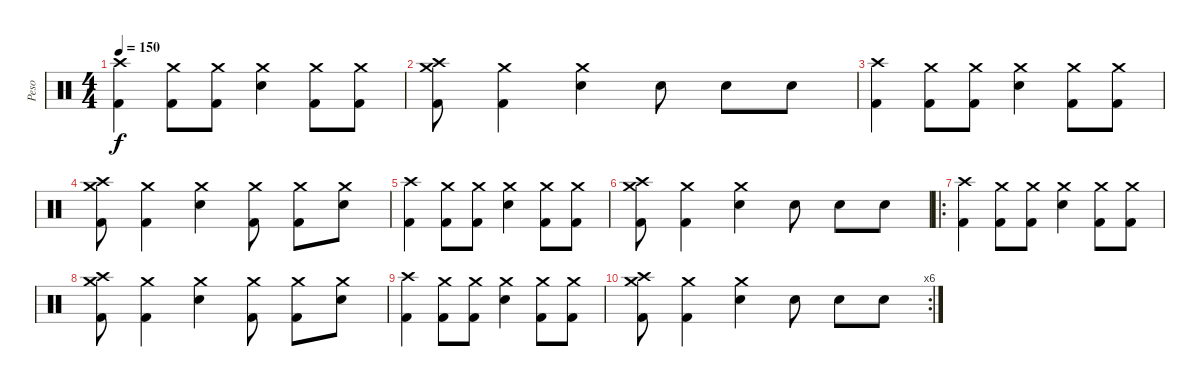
\track ("Peso" "Peso") {instrument percussion}
\staff {score}
\articulation defaults
\ts (4 4)
\tempo 150
\clef neutral
\ks c
("Crash high (hit)" "Kick (hit) 2").4{dy f} ("Crash medium (hit)" "Kick (hit) 2").8 ("Crash medium (hit)" "Kick (hit) 2").8 ("Crash medium (hit)" "Snare (hit) 2").4 ("Crash medium (hit)" "Kick (hit) 2").8 ("Crash medium (hit)" "Kick (hit) 2").8 |
("Crash high (hit)" "Crash medium (hit)" "Kick (hit) 2").8 ("Crash medium (hit)" "Kick (hit) 2").4 ("Crash medium (hit)" "Snare (hit) 2").4 "Snare (hit) 2".8 "Snare (hit) 2".8 "Snare (hit) 2".8 |
("Crash high (hit)" "Kick (hit) 2").4 ("Crash medium (hit)" "Kick (hit) 2").8 ("Crash medium (hit)" "Kick (hit) 2").8 ("Crash medium (hit)" "Snare (hit) 2").4 ("Crash medium (hit)" "Kick (hit) 2").8 ("Crash medium (hit)" "Kick (hit) 2").8 |
("Crash high (hit)" "Crash medium (hit)" "Kick (hit) 2").8 ("Crash medium (hit)" "Kick (hit) 2").4 ("Crash medium (hit)" "Snare (hit) 2").4 ("Crash medium (hit)" "Kick (hit) 2").8 ("Crash medium (hit)" "Kick (hit) 2").8 ("Crash medium (hit)" "Snare (hit) 2").8 |
("Crash high (hit)" "Kick (hit) 2").4 ("Crash medium (hit)" "Kick (hit) 2").8 ("Crash medium (hit)" "Kick (hit) 2").8 ("Crash medium (hit)" "Snare (hit) 2").4 ("Crash medium (hit)" "Kick (hit) 2").8 ("Crash medium (hit)" "Kick (hit) 2").8 |
("Crash high (hit)" "Crash medium (hit)" "Kick (hit) 2").8 ("Crash medium (hit)" "Kick (hit) 2").4 ("Crash medium (hit)" "Snare (hit) 2").4 "Snare (hit) 2".8 "Snare (hit) 2".8 "Snare (hit) 2".8 |
\ro
("Crash high (hit)" "Kick (hit) 2").4 ("Crash medium (hit)" "Kick (hit) 2").8 ("Crash medium (hit)" "Kick (hit) 2").8 ("Crash medium (hit)" "Snare (hit) 2").4 ("Crash medium (hit)" "Kick (hit) 2").8 ("Crash medium (hit)" "Kick (hit) 2").8 |
("Crash high (hit)" "Crash medium (hit)" "Kick (hit) 2").8 ("Crash medium (hit)" "Kick (hit) 2").4 ("Crash medium (hit)" "Snare (hit) 2").4 ("Crash medium (hit)" "Kick (hit) 2").8 ("Crash medium (hit)" "Kick (hit) 2").8 ("Crash medium (hit)" "Snare (hit) 2").8 |
("Crash high (hit)" "Kick (hit) 2").4 ("Crash medium (hit)" "Kick (hit) 2").8 ("Crash medium (hit)" "Kick (hit) 2").8 ("Crash medium (hit)" "Snare (hit) 2").4 ("Crash medium (hit)" "Kick (hit) 2").8 ("Crash medium (hit)" "Kick (hit) 2").8 |
\rc 6
("Crash high (hit)" "Crash medium (hit)" "Kick (hit) 2").8 ("Crash medium (hit)" "Kick (hit) 2").4 ("Crash medium (hit)" "Snare (hit) 2").4 "Snare (hit) 2".8 "Snare (hit) 2".8 "Snare (hit) 2".8
